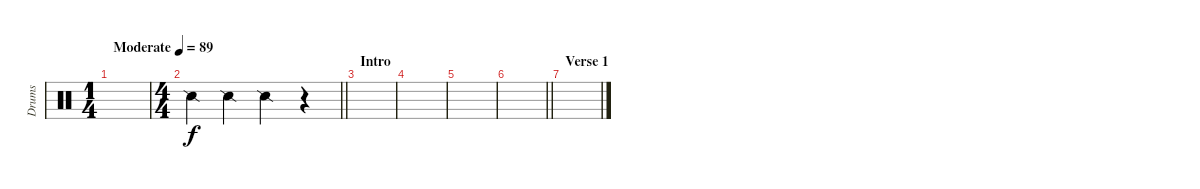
\track ("Drums" "Drums") {instrument percussion}
\staff {score}
\articulation defaults
\ts (1 4)
\tempo (89 "Moderate")
\clef neutral
\ks c
|
\ts (4 4)
\barLineRight lightlight "Snare (side stick) 2".4 "Snare (side stick) 2".4 "Snare (side stick) 2".4
r.4 |
\section ("" "Intro")
|
|
|
\barLineRight lightlight
|
\section ("" "Verse 1")
